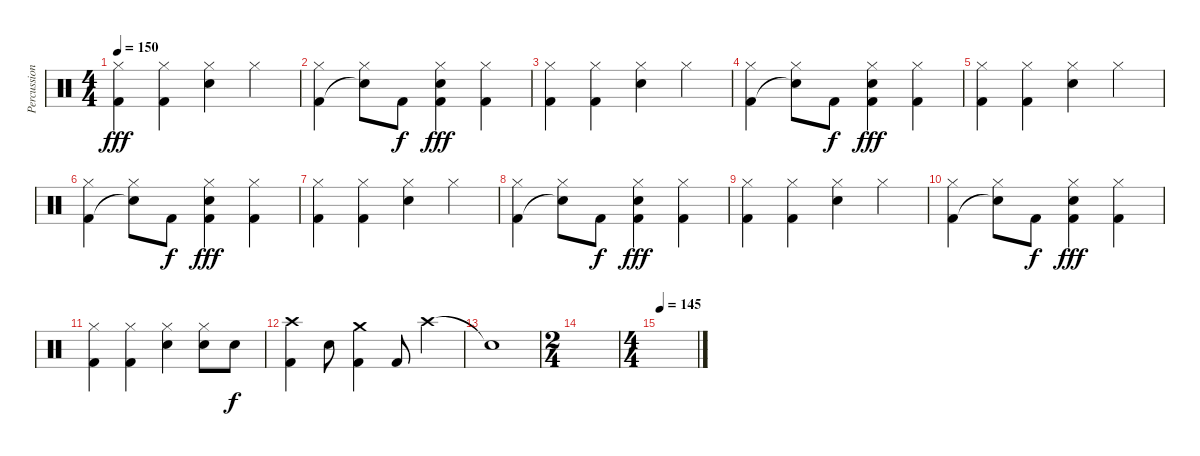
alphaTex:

\track ("Percussion" "Percussion") {instrument percussion}
\staff {score}
\articulation defaults
\ts (4 4)
\tempo 150
\clef neutral
\ks c
("Hi-Hat (closed)" "Kick (hit) 2").4{dy fff} ("Hi-Hat (closed)" "Kick (hit) 2").4 ("Electric Snare (hit)" "Hi-Hat (closed)").4 "Hi-Hat (closed)".4 |
("Hi-Hat (closed)" "Kick (hit) 2").4 ("Hi-Hat (closed)" "Snare (hit)"{t}).8 "Kick (hit) 2".8{dy f} ("Electric Snare (hit)" "Hi-Hat (closed)" "Kick (hit) 2").4{dy fff} ("Hi-Hat (closed)" "Kick (hit) 2").4 |
("Hi-Hat (closed)" "Kick (hit) 2").4 ("Hi-Hat (closed)" "Kick (hit) 2").4 ("Electric Snare (hit)" "Hi-Hat (closed)").4 "Hi-Hat (closed)".4 |
("Hi-Hat (closed)" "Kick (hit) 2").4 ("Hi-Hat (closed)" "Snare (hit)"{t}).8 "Kick (hit) 2".8{dy f} ("Electric Snare (hit)" "Hi-Hat (closed)" "Kick (hit) 2").4{dy fff} ("Hi-Hat (closed)" "Kick (hit) 2").4 |
("Hi-Hat (closed)" "Kick (hit) 2").4 ("Hi-Hat (closed)" "Kick (hit) 2").4 ("Electric Snare (hit)" "Hi-Hat (closed)").4 "Hi-Hat (closed)".4 |
("Hi-Hat (closed)" "Kick (hit) 2").4 ("Hi-Hat (closed)" "Snare (hit)"{t}).8 "Kick (hit) 2".8{dy f} ("Electric Snare (hit)" "Hi-Hat (closed)" "Kick (hit) 2").4{dy fff} ("Hi-Hat (closed)" "Kick (hit) 2").4 |
("Hi-Hat (closed)" "Kick (hit) 2").4 ("Hi-Hat (closed)" "Kick (hit) 2").4 ("Electric Snare (hit)" "Hi-Hat (closed)").4 "Hi-Hat (closed)".4 |
("Hi-Hat (closed)" "Kick (hit) 2").4 ("Hi-Hat (closed)" "Snare (hit)"{t}).8 "Kick (hit) 2".8{dy f} ("Electric Snare (hit)" "Hi-Hat (closed)" "Kick (hit) 2").4{dy fff} ("Hi-Hat (closed)" "Kick (hit) 2").4 |
("Hi-Hat (closed)" "Kick (hit) 2").4 ("Hi-Hat (closed)" "Kick (hit) 2").4 ("Electric Snare (hit)" "Hi-Hat (closed)").4 "Hi-Hat (closed)".4 |
("Hi-Hat (closed)" "Kick (hit) 2").4 ("Hi-Hat (closed)" "Snare (hit)"{t}).8 "Kick (hit) 2".8{dy f} ("Electric Snare (hit)" "Hi-Hat (closed)" "Kick (hit) 2").4{dy fff} ("Hi-Hat (closed)" "Kick (hit) 2").4 |
("Hi-Hat (closed)" "Kick (hit) 2").4 ("Hi-Hat (closed)" "Kick (hit) 2").4 ("Electric Snare (hit)" "Hi-Hat (closed)").4 ("Electric Snare (hit)" "Hi-Hat (closed)").8 "Electric Snare (hit)".8{dy f} |
("Crash high (hit)" "Kick (hit) 2").4 "Electric Snare (hit)".8 ("Crash medium (hit)" "Kick (hit) 2").4 "Kick (hit) 2".8 "Crash high (hit)".4 |
"Snare (hit)"{t}.1 |
\ts (2 4)
|
\ts (4 4)
\tempo 145
